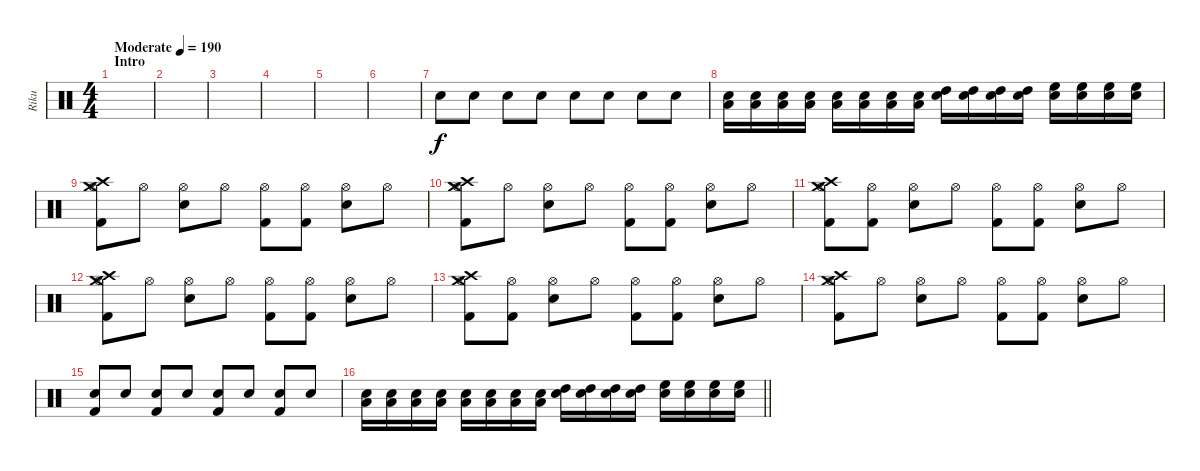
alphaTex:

\track ("Riku" "Riku") {instrument percussion}
\staff {score}
\articulation defaults
\ts (4 4)
\section ("" "Intro")
\tempo (190 "Moderate")
\clef neutral
\ks c
|
|
|
|
|
|
"Snare (hit) 2".8 "Snare (hit) 2".8 "Snare (hit) 2".8 "Snare (hit) 2".8 "Snare (hit) 2".8 "Snare (hit) 2".8 "Snare (hit) 2".8 "Snare (hit) 2".8 |
("Snare (hit) 2" "Low Floor Tom (hit)").16 ("Snare (hit) 2" "Low Floor Tom (hit)").16 ("Snare (hit) 2" "Low Floor Tom (hit)").16 ("Snare (hit) 2" "Low Floor Tom (hit)").16 ("Snare (hit) 2" "Low Tom (hit)").16 ("Snare (hit) 2" "Low Tom (hit)").16 ("Snare (hit) 2" "Low Tom (hit)").16 ("Snare (hit) 2" "Low Tom (hit)").16 ("Snare (hit) 2" "High Tom (hit)").16 ("Snare (hit) 2" "High Tom (hit)").16 ("Snare (hit) 2" "High Tom (hit)").16 ("Snare (hit) 2" "High Tom (hit)").16 ("Snare (hit) 2" "High Floor Tom (hit)").16 ("Snare (hit) 2" "High Floor Tom (hit)").16 ("Snare (hit) 2" "High Floor Tom (hit)").16 ("Snare (hit) 2" "High Floor Tom (hit)").16 |
("Crash high (hit)" "Hi-Hat (open)" "Kick (hit) 2" "Crash medium (hit)").8 "Hi-Hat (open)".8 ("Hi-Hat (open)" "Snare (hit) 2").8 "Hi-Hat (open)".8 ("Hi-Hat (open)" "Kick (hit) 2").8 ("Hi-Hat (open)" "Kick (hit) 2").8 ("Hi-Hat (open)" "Snare (hit) 2").8 "Hi-Hat (open)".8 |
("Crash high (hit)" "Hi-Hat (open)" "Kick (hit) 2" "Crash medium (hit)").8 "Hi-Hat (open)".8 ("Hi-Hat (open)" "Snare (hit) 2").8 "Hi-Hat (open)".8 ("Hi-Hat (open)" "Kick (hit) 2").8 ("Hi-Hat (open)" "Kick (hit) 2").8 ("Hi-Hat (open)" "Snare (hit) 2").8 "Hi-Hat (open)".8 |
("Crash high (hit)" "Hi-Hat (open)" "Kick (hit) 2" "Crash medium (hit)").8 ("Hi-Hat (open)" "Kick (hit) 2").8 ("Hi-Hat (open)" "Snare (hit) 2").8 "Hi-Hat (open)".8 ("Hi-Hat (open)" "Kick (hit) 2").8 ("Hi-Hat (open)" "Kick (hit) 2").8 ("Hi-Hat (open)" "Snare (hit) 2").8 "Hi-Hat (open)".8 |
("Crash high (hit)" "Hi-Hat (open)" "Kick (hit) 2" "Crash medium (hit)").8 "Hi-Hat (open)".8 ("Hi-Hat (open)" "Snare (hit) 2").8 "Hi-Hat (open)".8 ("Hi-Hat (open)" "Kick (hit) 2").8 ("Hi-Hat (open)" "Kick (hit) 2").8 ("Hi-Hat (open)" "Snare (hit) 2").8 "Hi-Hat (open)".8 |
("Crash high (hit)" "Hi-Hat (open)" "Kick (hit) 2" "Crash medium (hit)").8 ("Hi-Hat (open)" "Kick (hit) 2").8 ("Hi-Hat (open)" "Snare (hit) 2").8 "Hi-Hat (open)".8 ("Hi-Hat (open)" "Kick (hit) 2").8 ("Hi-Hat (open)" "Kick (hit) 2").8 ("Hi-Hat (open)" "Snare (hit) 2").8 "Hi-Hat (open)".8 |
("Crash high (hit)" "Hi-Hat (open)" "Kick (hit) 2" "Crash medium (hit)").8 "Hi-Hat (open)".8 ("Hi-Hat (open)" "Snare (hit) 2").8 "Hi-Hat (open)".8 ("Hi-Hat (open)" "Kick (hit) 2").8 ("Hi-Hat (open)" "Kick (hit) 2").8 ("Hi-Hat (open)" "Snare (hit) 2").8 "Hi-Hat (open)".8 |
("Kick (hit) 2" "Snare (hit) 2").8 "Snare (hit) 2".8 ("Kick (hit) 2" "Snare (hit) 2").8 "Snare (hit) 2".8 ("Kick (hit) 2" "Snare (hit) 2").8 "Snare (hit) 2".8 ("Kick (hit) 2" "Snare (hit) 2").8 "Snare (hit) 2".8 |
\barLineRight lightlight
("Snare (hit) 2" "Low Floor Tom (hit)").16 ("Snare (hit) 2" "Low Floor Tom (hit)").16 ("Snare (hit) 2" "Low Floor Tom (hit)").16 ("Snare (hit) 2" "Low Floor Tom (hit)").16 ("Snare (hit) 2" "Low Tom (hit)").16 ("Snare (hit) 2" "Low Tom (hit)").16 ("Snare (hit) 2" "Low Tom (hit)").16 ("Snare (hit) 2" "Low Tom (hit)").16 ("Snare (hit) 2" "High Tom (hit)").16 ("Snare (hit) 2" "High Tom (hit)").16 ("Snare (hit) 2" "High Tom (hit)").16 ("Snare (hit) 2" "High Tom (hit)").16 ("Snare (hit) 2" "High Floor Tom (hit)").16 ("Snare (hit) 2" "High Floor Tom (hit)").16 ("Snare (hit) 2" "High Floor Tom (hit)").16 ("Snare (hit) 2" "High Floor Tom (hit)").16
